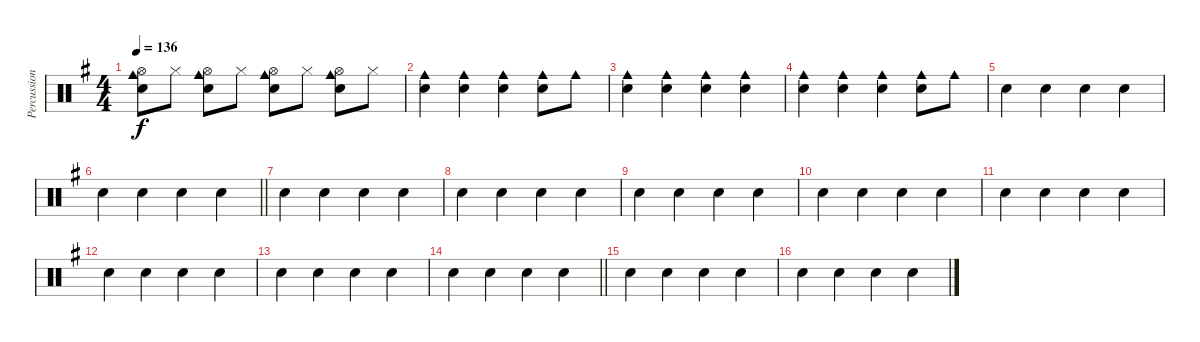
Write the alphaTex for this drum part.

\track ("Percussions" "Percussion") {instrument percussion}
\staff {score}
\articulation defaults
\ts (4 4)
\tempo 136
\clef neutral
\ks g
("Hand Clap (hit)" "Cowbell medium (hit)" "Hi-Hat (open)").8{dy f} "Hi-Hat (closed)".8 ("Hand Clap (hit)" "Cowbell medium (hit)" "Hi-Hat (open)").8 "Hi-Hat (closed)".8 ("Hand Clap (hit)" "Cowbell medium (hit)" "Hi-Hat (open)").8 "Hi-Hat (closed)".8 ("Hand Clap (hit)" "Cowbell medium (hit)" "Hi-Hat (open)").8 "Hi-Hat (closed)".8 |
("Hand Clap (hit)" "Cowbell medium (hit)").4 ("Hand Clap (hit)" "Cowbell medium (hit)").4 ("Hand Clap (hit)" "Cowbell medium (hit)").4 ("Hand Clap (hit)" "Cowbell medium (hit)").8 "Cowbell medium (hit)".8 |
("Hand Clap (hit)" "Cowbell medium (hit)").4 ("Hand Clap (hit)" "Cowbell medium (hit)").4 ("Hand Clap (hit)" "Cowbell medium (hit)").4 ("Hand Clap (hit)" "Cowbell medium (hit)").4 |
("Hand Clap (hit)" "Cowbell medium (hit)").4 ("Hand Clap (hit)" "Cowbell medium (hit)").4 ("Hand Clap (hit)" "Cowbell medium (hit)").4 ("Hand Clap (hit)" "Cowbell medium (hit)").8 "Cowbell medium (hit)".8 |
"Hand Clap (hit)".4 "Hand Clap (hit)".4 "Hand Clap (hit)".4 "Hand Clap (hit)".4 |
\barLineRight lightlight "Hand Clap (hit)".4 "Hand Clap (hit)".4 "Hand Clap (hit)".4 "Hand Clap (hit)".4
|
"Hand Clap (hit)".4 "Hand Clap (hit)".4 "Hand Clap (hit)".4 "Hand Clap (hit)".4 |
"Hand Clap (hit)".4 "Hand Clap (hit)".4 "Hand Clap (hit)".4 "Hand Clap (hit)".4 |
"Hand Clap (hit)".4 "Hand Clap (hit)".4 "Hand Clap (hit)".4 "Hand Clap (hit)".4 |
"Hand Clap (hit)".4 "Hand Clap (hit)".4 "Hand Clap (hit)".4 "Hand Clap (hit)".4 |
"Hand Clap (hit)".4 "Hand Clap (hit)".4 "Hand Clap (hit)".4 "Hand Clap (hit)".4 |
"Hand Clap (hit)".4 "Hand Clap (hit)".4 "Hand Clap (hit)".4 "Hand Clap (hit)".4 |
"Hand Clap (hit)".4 "Hand Clap (hit)".4 "Hand Clap (hit)".4 "Hand Clap (hit)".4 |
\barLineRight lightlight "Hand Clap (hit)".4 "Hand Clap (hit)".4 "Hand Clap (hit)".4 "Hand Clap (hit)".4
|
"Hand Clap (hit)".4 "Hand Clap (hit)".4 "Hand Clap (hit)".4 "Hand Clap (hit)".4 |
"Hand Clap (hit)".4 "Hand Clap (hit)".4 "Hand Clap (hit)".4 "Hand Clap (hit)".4
